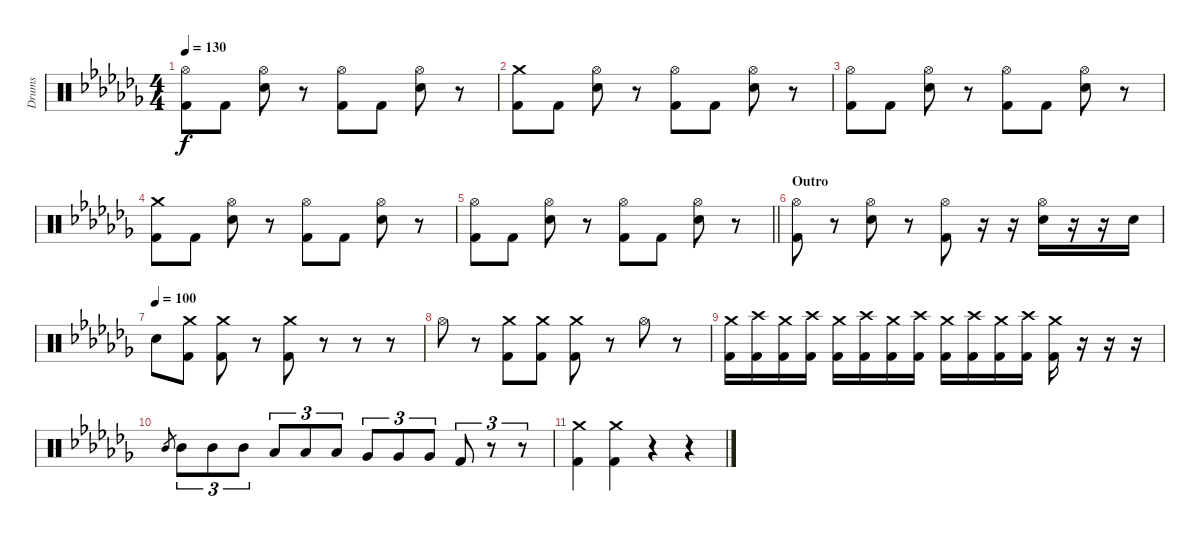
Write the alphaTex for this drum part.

\track ("Drums" "Drums") {instrument percussion}
\staff {score}
\articulation defaults
\ts (4 4)
\tempo 130
\clef neutral
\ks cb
("Hi-Hat (open)" "Kick (hit) 2").8{dy f} "Kick (hit) 2".8 ("Hi-Hat (open)" "Snare (hit) 2").8 r.8 ("Hi-Hat (open)" "Kick (hit) 2").8 "Kick (hit) 2".8 ("Hi-Hat (open)" "Snare (hit) 2").8 r.8 |
("Crash medium (hit)" "Kick (hit) 2").8 "Kick (hit) 2".8 ("Hi-Hat (open)" "Snare (hit) 2").8 r.8 ("Hi-Hat (open)" "Kick (hit) 2").8 "Kick (hit) 2".8 ("Hi-Hat (open)" "Snare (hit) 2").8 r.8 |
("Hi-Hat (open)" "Kick (hit) 2").8 "Kick (hit) 2".8 ("Hi-Hat (open)" "Snare (hit) 2").8 r.8 ("Hi-Hat (open)" "Kick (hit) 2").8 "Kick (hit) 2".8 ("Hi-Hat (open)" "Snare (hit) 2").8 r.8 |
("Crash medium (hit)" "Kick (hit) 2").8 "Kick (hit) 2".8 ("Hi-Hat (open)" "Snare (hit) 2").8 r.8 ("Hi-Hat (open)" "Kick (hit) 2").8 "Kick (hit) 2".8 ("Hi-Hat (open)" "Snare (hit) 2").8 r.8 |
\barLineRight lightlight
("Hi-Hat (open)" "Kick (hit) 2").8 "Kick (hit) 2".8 ("Hi-Hat (open)" "Snare (hit) 2").8 r.8 ("Hi-Hat (open)" "Kick (hit) 2").8 "Kick (hit) 2".8 ("Hi-Hat (open)" "Snare (hit) 2").8 r.8 |
\section ("" "Outro")
("Hi-Hat (open)" "Kick (hit) 2").8 r.8 ("Hi-Hat (open)" "Snare (hit) 2").8 r.8 ("Hi-Hat (open)" "Kick (hit) 2").8 r.16 r.16 ("Hi-Hat (open)" "Snare (hit) 2").16 r.16 r.16 "Snare (hit) 2".16 |
\tempo (100)
"Snare (hit) 2".8 ("Crash medium (hit)" "Kick (hit) 2").8 ("Crash medium (hit)" "Kick (hit) 2").8 r.8 ("Crash medium (hit)" "Kick (hit) 2").8 r.8 r.8 r.8 |
"Hi-Hat (open)".8 r.8 ("Crash medium (hit)" "Kick (hit) 2").8 ("Crash medium (hit)" "Kick (hit) 2").8 ("Crash medium (hit)" "Kick (hit) 2").8 r.8 "Hi-Hat (open)".8 r.8 |
("Crash medium (hit)" "Kick (hit) 2").16 ("Crash high (hit)" "Kick (hit) 2").16 ("Crash medium (hit)" "Kick (hit) 2").16 ("Crash high (hit)" "Kick (hit) 2").16 ("Crash medium (hit)" "Kick (hit) 2").16 ("Crash high (hit)" "Kick (hit) 2").16 ("Crash medium (hit)" "Kick (hit) 2").16 ("Crash high (hit)" "Kick (hit) 2").16 ("Crash medium (hit)" "Kick (hit) 2").16 ("Crash high (hit)" "Kick (hit) 2").16 ("Crash medium (hit)" "Kick (hit) 2").16 ("Crash high (hit)" "Kick (hit) 2").16 ("Crash medium (hit)" "Kick (hit) 2").16 r.16 r.16 r.16 |
"Mid Tom (hit)".8{gr} "Mid Tom (hit)".8{tu (3 2)} "Mid Tom (hit)".8{tu (3 2)} "Mid Tom (hit)".8{tu (3 2)} "Low Tom (hit)".8{tu (3 2)} "Low Tom (hit)".8{tu (3 2)} "Low Tom (hit)".8{tu (3 2)} "Very Low Tom (hit)".8{tu (3 2)} "Very Low Tom (hit)".8{tu (3 2)} "Very Low Tom (hit)".8{tu (3 2)} "Kick (hit) 2".8{tu (3 2)} r.8{tu (3 2)} r.8{tu (3 2)} |
("Crash medium (hit)" "Kick (hit) 2").4 ("Crash medium (hit)" "Kick (hit) 2").4 r.4 r.4
